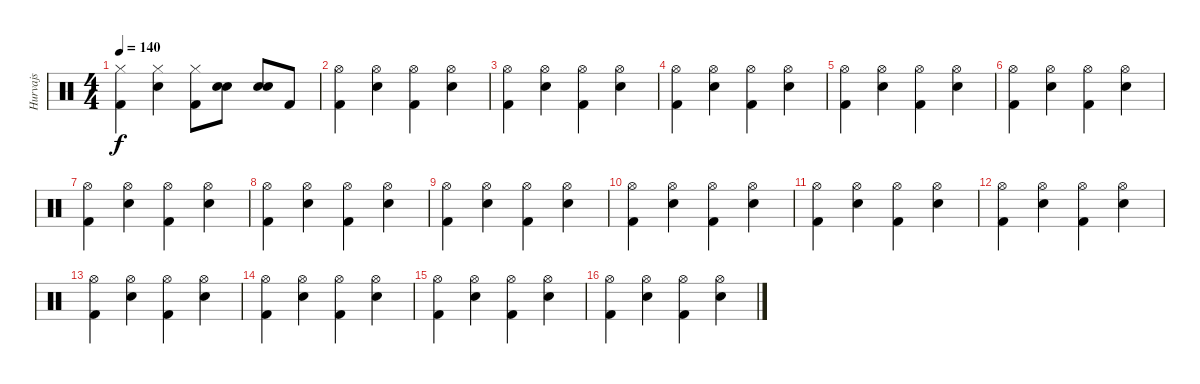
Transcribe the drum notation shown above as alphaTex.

\track ("Hurvajs" "Hurvajs") {instrument percussion}
\staff {score}
\articulation defaults
\ts (4 4)
\tempo 140
\clef neutral
\ks c
("Hi-Hat (closed)" "Kick (hit) 2").4{dy f} ("Hi-Hat (closed)" "Snare (hit) 2").4 ("Hi-Hat (closed)" "Kick (hit) 2").8 ("Snare (hit) 2" "Snare (hit) 2").8 ("Snare (hit) 2" "Snare (hit) 2").8 "Kick (hit) 2".8 |
("Hi-Hat (open)" "Kick (hit) 2").4 ("Hi-Hat (open)" "Snare (hit) 2").4 ("Hi-Hat (open)" "Kick (hit) 2").4 ("Hi-Hat (open)" "Snare (hit) 2").4 |
("Hi-Hat (open)" "Kick (hit) 2").4 ("Hi-Hat (open)" "Snare (hit) 2").4 ("Hi-Hat (open)" "Kick (hit) 2").4 ("Hi-Hat (open)" "Snare (hit) 2").4 |
("Hi-Hat (open)" "Kick (hit) 2").4 ("Hi-Hat (open)" "Snare (hit) 2").4 ("Hi-Hat (open)" "Kick (hit) 2").4 ("Hi-Hat (open)" "Snare (hit) 2").4 |
("Hi-Hat (open)" "Kick (hit) 2").4 ("Hi-Hat (open)" "Snare (hit) 2").4 ("Hi-Hat (open)" "Kick (hit) 2").4 ("Hi-Hat (open)" "Snare (hit) 2").4 |
("Hi-Hat (open)" "Kick (hit) 2").4 ("Hi-Hat (open)" "Snare (hit) 2").4 ("Hi-Hat (open)" "Kick (hit) 2").4 ("Hi-Hat (open)" "Snare (hit) 2").4 |
("Hi-Hat (open)" "Kick (hit) 2").4 ("Hi-Hat (open)" "Snare (hit) 2").4 ("Hi-Hat (open)" "Kick (hit) 2").4 ("Hi-Hat (open)" "Snare (hit) 2").4 |
("Hi-Hat (open)" "Kick (hit) 2").4 ("Hi-Hat (open)" "Snare (hit) 2").4 ("Hi-Hat (open)" "Kick (hit) 2").4 ("Hi-Hat (open)" "Snare (hit) 2").4 |
("Hi-Hat (open)" "Kick (hit) 2").4 ("Hi-Hat (open)" "Snare (hit) 2").4 ("Hi-Hat (open)" "Kick (hit) 2").4 ("Hi-Hat (open)" "Snare (hit) 2").4 |
("Hi-Hat (open)" "Kick (hit) 2").4 ("Hi-Hat (open)" "Snare (hit) 2").4 ("Hi-Hat (open)" "Kick (hit) 2").4 ("Hi-Hat (open)" "Snare (hit) 2").4 |
("Hi-Hat (open)" "Kick (hit) 2").4 ("Hi-Hat (open)" "Snare (hit) 2").4 ("Hi-Hat (open)" "Kick (hit) 2").4 ("Hi-Hat (open)" "Snare (hit) 2").4 |
("Hi-Hat (open)" "Kick (hit) 2").4 ("Hi-Hat (open)" "Snare (hit) 2").4 ("Hi-Hat (open)" "Kick (hit) 2").4 ("Hi-Hat (open)" "Snare (hit) 2").4 |
("Hi-Hat (open)" "Kick (hit) 2").4 ("Hi-Hat (open)" "Snare (hit) 2").4 ("Hi-Hat (open)" "Kick (hit) 2").4 ("Hi-Hat (open)" "Snare (hit) 2").4 |
("Hi-Hat (open)" "Kick (hit) 2").4 ("Hi-Hat (open)" "Snare (hit) 2").4 ("Hi-Hat (open)" "Kick (hit) 2").4 ("Hi-Hat (open)" "Snare (hit) 2").4 |
("Hi-Hat (open)" "Kick (hit) 2").4 ("Hi-Hat (open)" "Snare (hit) 2").4 ("Hi-Hat (open)" "Kick (hit) 2").4 ("Hi-Hat (open)" "Snare (hit) 2").4 |
("Hi-Hat (open)" "Kick (hit) 2").4 ("Hi-Hat (open)" "Snare (hit) 2").4 ("Hi-Hat (open)" "Kick (hit) 2").4 ("Hi-Hat (open)" "Snare (hit) 2").4
